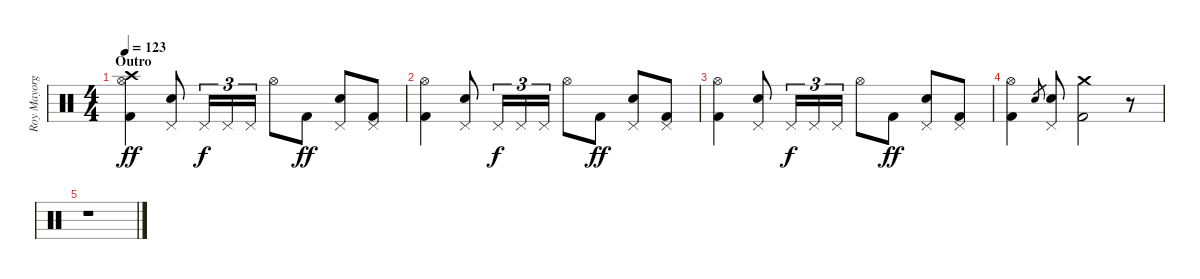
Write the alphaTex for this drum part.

\track ("Roy Mayorga (Drums)" "Roy Mayorg") {instrument percussion}
\staff {score}
\articulation defaults
\ts (4 4)
\section ("" "Outro")
\tempo 123
\clef neutral
\ks c
("Crash high (hit)" "Hi-Hat (open)" "Kick (hit) 2").4{dy ff} ("Pedal Hi-Hat (hit)" "Electric Snare (hit)").8 "Pedal Hi-Hat (hit)".16{tu (3 2) dy f} "Pedal Hi-Hat (hit)".16{tu (3 2)} "Pedal Hi-Hat (hit)".16{tu (3 2)} "Hi-Hat (open)".8 "Kick (hit) 2".8{dy ff} ("Pedal Hi-Hat (hit)" "Electric Snare (hit)").8 ("Pedal Hi-Hat (hit)" "Kick (hit) 2").8 |
("Hi-Hat (open)" "Kick (hit) 2").4 ("Pedal Hi-Hat (hit)" "Electric Snare (hit)").8 "Pedal Hi-Hat (hit)".16{tu (3 2) dy f} "Pedal Hi-Hat (hit)".16{tu (3 2)} "Pedal Hi-Hat (hit)".16{tu (3 2)} "Hi-Hat (open)".8 "Kick (hit) 2".8{dy ff} ("Pedal Hi-Hat (hit)" "Electric Snare (hit)").8 ("Pedal Hi-Hat (hit)" "Kick (hit) 2").8 |
("Hi-Hat (open)" "Kick (hit) 2").4 ("Pedal Hi-Hat (hit)" "Electric Snare (hit)").8 "Pedal Hi-Hat (hit)".16{tu (3 2) dy f} "Pedal Hi-Hat (hit)".16{tu (3 2)} "Pedal Hi-Hat (hit)".16{tu (3 2)} "Hi-Hat (open)".8 "Kick (hit) 2".8{dy ff} ("Pedal Hi-Hat (hit)" "Electric Snare (hit)").8 ("Pedal Hi-Hat (hit)" "Kick (hit) 2").8 |
("Hi-Hat (open)" "Kick (hit) 2").4 "Electric Snare (hit)".8{gr} ("Pedal Hi-Hat (hit)" "Electric Snare (hit)").8 ("Crash medium (hit)" "Kick (hit) 2").2 r.8 |
r.1
